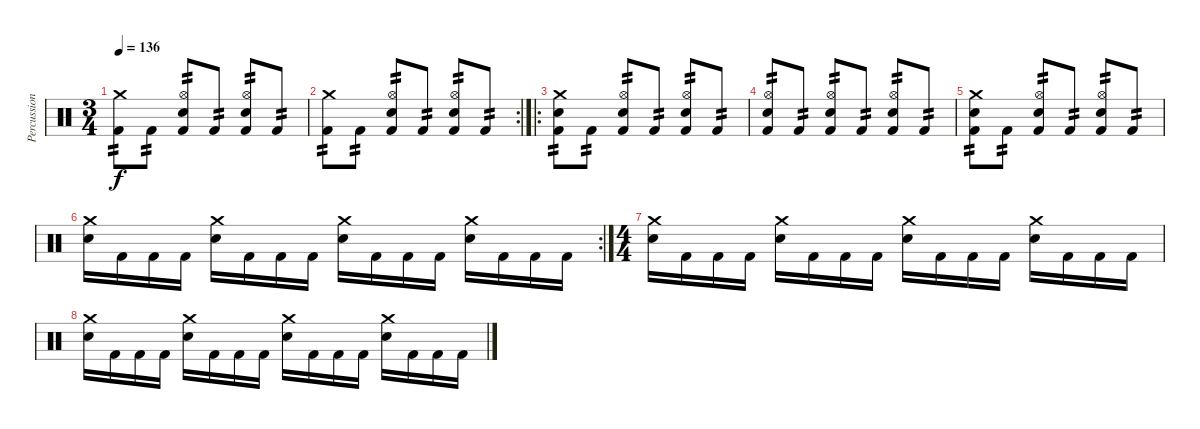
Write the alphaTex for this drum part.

\track ("Percussion" "Percussion") {instrument percussion}
\staff {score}
\articulation defaults
\ts (3 4)
\tempo 136
\clef neutral
\ks c
("Crash medium (hit)" "Kick (hit) 2").8{tp 2 dy f} "Kick (hit) 2".8{tp 2} ("Hi-Hat (open)" "Electric Snare (hit)" "Kick (hit) 2").8{tp 2} "Kick (hit) 2".8{tp 2} ("Hi-Hat (open)" "Electric Snare (hit)" "Kick (hit) 2").8{tp 2} "Kick (hit) 2".8{tp 2} |
\rc 2
("Crash medium (hit)" "Kick (hit) 2").8{tp 2} "Kick (hit) 2".8{tp 2} ("Electric Snare (hit)" "Hi-Hat (open)" "Kick (hit) 2").8{tp 2} "Kick (hit) 2".8{tp 2} ("Electric Snare (hit)" "Hi-Hat (open)" "Kick (hit) 2").8{tp 2} "Kick (hit) 2".8{tp 2} |
\ro
("Crash medium (hit)" "Kick (hit) 2" "Electric Snare (hit)").8{tp 2} "Kick (hit) 2".8{tp 2} ("Hi-Hat (open)" "Electric Snare (hit)" "Kick (hit) 2").8{tp 2} "Kick (hit) 2".8{tp 2} ("Hi-Hat (open)" "Electric Snare (hit)" "Kick (hit) 2").8{tp 2} "Kick (hit) 2".8{tp 2} |
("Hi-Hat (open)" "Electric Snare (hit)" "Kick (hit) 2").8{tp 2} "Kick (hit) 2".8{tp 2} ("Hi-Hat (open)" "Electric Snare (hit)" "Kick (hit) 2").8{tp 2} "Kick (hit) 2".8{tp 2} ("Hi-Hat (open)" "Electric Snare (hit)" "Kick (hit) 2").8{tp 2} "Kick (hit) 2".8{tp 2} |
("Crash medium (hit)" "Kick (hit) 2" "Electric Snare (hit)").8{tp 2} "Kick (hit) 2".8{tp 2} ("Hi-Hat (open)" "Electric Snare (hit)" "Kick (hit) 2").8{tp 2} "Kick (hit) 2".8{tp 2} ("Hi-Hat (open)" "Electric Snare (hit)" "Kick (hit) 2").8{tp 2} "Kick (hit) 2".8{tp 2} |
\rc 2
("Crash medium (hit)" "Electric Snare (hit)").16 "Kick (hit) 2".16 "Kick (hit) 2".16 "Kick (hit) 2".16 ("Crash medium (hit)" "Electric Snare (hit)").16 "Kick (hit) 2".16 "Kick (hit) 2".16 "Kick (hit) 2".16 ("Crash medium (hit)" "Electric Snare (hit)").16 "Kick (hit) 2".16 "Kick (hit) 2".16 "Kick (hit) 2".16 ("Crash medium (hit)" "Electric Snare (hit)").16 "Kick (hit) 2".16 "Kick (hit) 2".16 "Kick (hit) 2".16 |
\ts (4 4)
("Crash medium (hit)" "Electric Snare (hit)").16 "Kick (hit) 2".16 "Kick (hit) 2".16 "Kick (hit) 2".16 ("Crash medium (hit)" "Electric Snare (hit)").16 "Kick (hit) 2".16 "Kick (hit) 2".16 "Kick (hit) 2".16 ("Crash medium (hit)" "Electric Snare (hit)").16 "Kick (hit) 2".16 "Kick (hit) 2".16 "Kick (hit) 2".16 ("Crash medium (hit)" "Electric Snare (hit)").16 "Kick (hit) 2".16 "Kick (hit) 2".16 "Kick (hit) 2".16 |
("Crash medium (hit)" "Electric Snare (hit)").16 "Kick (hit) 2".16 "Kick (hit) 2".16 "Kick (hit) 2".16 ("Crash medium (hit)" "Electric Snare (hit)").16 "Kick (hit) 2".16 "Kick (hit) 2".16 "Kick (hit) 2".16 ("Crash medium (hit)" "Electric Snare (hit)").16 "Kick (hit) 2".16 "Kick (hit) 2".16 "Kick (hit) 2".16 ("Crash medium (hit)" "Electric Snare (hit)").16 "Kick (hit) 2".16 "Kick (hit) 2".16 "Kick (hit) 2".16
